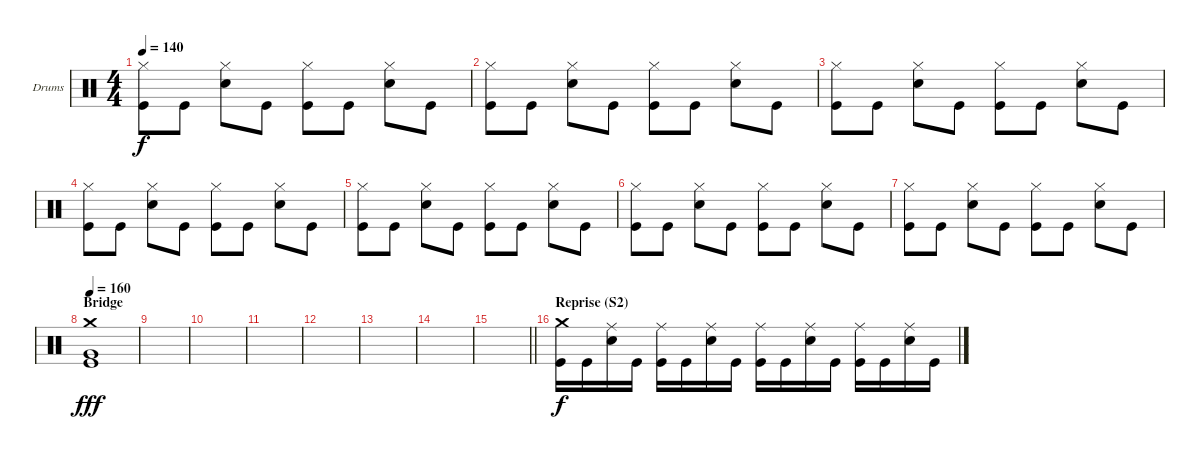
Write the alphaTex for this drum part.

\defaultSystemsLayout 4
\bracketExtendMode groupsimilarinstruments
\firstSystemTrackNameOrientation horizontal
\otherSystemsTrackNameOrientation horizontal
\track ("Drums" "Drums") {instrument percussion}
\staff {score}
\articulation defaults
\ts (4 4)
\tempo 140
\clef neutral
\scale
0.333333
\ks aminor
("Kick (hit)" "Hi-Hat (closed)").8{dy f} "Kick (hit)".8 ("Snare (hit) 2" "Hi-Hat (closed)").8 "Kick (hit)".8 ("Kick (hit)" "Hi-Hat (closed)").8 "Kick (hit)".8 ("Snare (hit) 2" "Hi-Hat (closed)").8 "Kick (hit)".8 |
\scale
0.333333 ("Kick (hit)" "Hi-Hat (closed)").8 "Kick (hit)".8 ("Snare (hit) 2" "Hi-Hat (closed)").8 "Kick (hit)".8 ("Kick (hit)" "Hi-Hat (closed)").8 "Kick (hit)".8 ("Snare (hit) 2" "Hi-Hat (closed)").8 "Kick (hit)".8 |
\scale
0.333333 ("Kick (hit)" "Hi-Hat (closed)").8 "Kick (hit)".8 ("Snare (hit) 2" "Hi-Hat (closed)").8 "Kick (hit)".8 ("Kick (hit)" "Hi-Hat (closed)").8 "Kick (hit)".8 ("Snare (hit) 2" "Hi-Hat (closed)").8 "Kick (hit)".8 |
\scale
0.333333 ("Kick (hit)" "Hi-Hat (closed)").8 "Kick (hit)".8 ("Snare (hit) 2" "Hi-Hat (closed)").8 "Kick (hit)".8 ("Kick (hit)" "Hi-Hat (closed)").8 "Kick (hit)".8 ("Snare (hit) 2" "Hi-Hat (closed)").8 "Kick (hit)".8 |
\scale
0.333333 ("Kick (hit)" "Hi-Hat (closed)").8 "Kick (hit)".8 ("Snare (hit) 2" "Hi-Hat (closed)").8 "Kick (hit)".8 ("Kick (hit)" "Hi-Hat (closed)").8 "Kick (hit)".8 ("Snare (hit) 2" "Hi-Hat (closed)").8 "Kick (hit)".8 |
\scale
0.333333 ("Kick (hit)" "Hi-Hat (closed)").8 "Kick (hit)".8 ("Snare (hit) 2" "Hi-Hat (closed)").8 "Kick (hit)".8 ("Kick (hit)" "Hi-Hat (closed)").8 "Kick (hit)".8 ("Snare (hit) 2" "Hi-Hat (closed)").8 "Kick (hit)".8 |
\scale
0.333333 ("Kick (hit)" "Hi-Hat (closed)").8 "Kick (hit)".8 ("Snare (hit) 2" "Hi-Hat (closed)").8 "Kick (hit)".8 ("Kick (hit)" "Hi-Hat (closed)").8 "Kick (hit)".8 ("Snare (hit) 2" "Hi-Hat (closed)").8 "Kick (hit)".8 |
\section ("" "Bridge")
\tempo 160
\scale
0.333333 ("Kick (hit)" "Very Low Tom (hit)" "Crash medium (hit)").1{dy fff} |
\scale
0.333333 |
\scale
0.333333 |
\scale
0.333333 |
\scale
0.333333 |
\scale
0.333333 |
\scale
0.333333 |
\scale
0.333333
\barLineRight lightlight
|
\section ("" "Reprise (S2)")
\scale
0.333333 ("Kick (hit)" "Crash medium (hit)").16{dy f} "Kick (hit)".16 ("Snare (hit) 2" "Ride (middle)").16 "Kick (hit)".16 ("Kick (hit)" "Ride (middle)").16 "Kick (hit)".16 ("Snare (hit) 2" "Ride (middle)").16 "Kick (hit)".16 ("Kick (hit)" "Ride (middle)").16 "Kick (hit)".16 ("Snare (hit) 2" "Ride (middle)").16 "Kick (hit)".16 ("Kick (hit)" "Ride (middle)").16 "Kick (hit)".16 ("Snare (hit) 2" "Ride (middle)").16 "Kick (hit)".16
